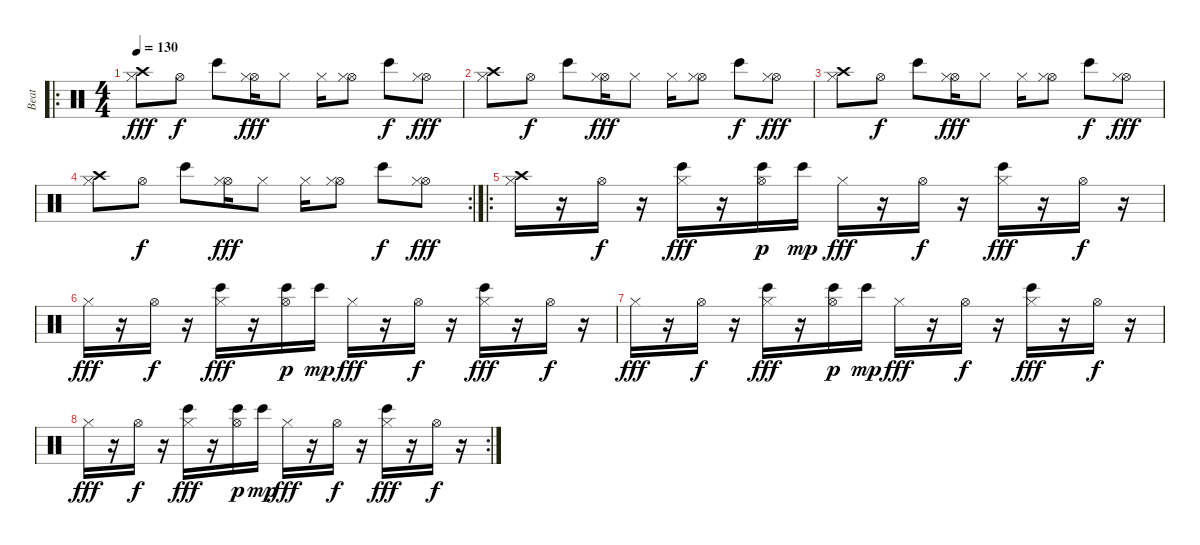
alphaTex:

\track ("Beat" "Beat") {instrument percussion}
\staff {score}
\articulation defaults
\ro
\ts (4 4)
\tempo 130
\clef neutral
\ks c
("Crash high (hit)" "Hi-Hat (closed)").8{dy fff} "Hi-Hat (open)".8{dy f} "Bongo High (hit)".8 ("Hi-Hat (open)" "Hi-Hat (closed)").16{dy fff} "Hi-Hat (closed)".8 "Hi-Hat (closed)".16 ("Hi-Hat (open)" "Hi-Hat (closed)").8 "Bongo High (hit)".8{dy f} ("Hi-Hat (open)" "Hi-Hat (closed)").8{dy fff} |
("Crash high (hit)" "Hi-Hat (closed)").8 "Hi-Hat (open)".8{dy f} "Bongo High (hit)".8 ("Hi-Hat (open)" "Hi-Hat (closed)").16{dy fff} "Hi-Hat (closed)".8 "Hi-Hat (closed)".16 ("Hi-Hat (open)" "Hi-Hat (closed)").8 "Bongo High (hit)".8{dy f} ("Hi-Hat (open)" "Hi-Hat (closed)").8{dy fff} |
("Crash high (hit)" "Hi-Hat (closed)").8 "Hi-Hat (open)".8{dy f} "Bongo High (hit)".8 ("Hi-Hat (open)" "Hi-Hat (closed)").16{dy fff} "Hi-Hat (closed)".8 "Hi-Hat (closed)".16 ("Hi-Hat (open)" "Hi-Hat (closed)").8 "Bongo High (hit)".8{dy f} ("Hi-Hat (open)" "Hi-Hat (closed)").8{dy fff} |
\rc 2
("Crash high (hit)" "Hi-Hat (closed)").8 "Hi-Hat (open)".8{dy f} "Bongo High (hit)".8 ("Hi-Hat (open)" "Hi-Hat (closed)").16{dy fff} "Hi-Hat (closed)".8 "Hi-Hat (closed)".16 ("Hi-Hat (open)" "Hi-Hat (closed)").8 "Bongo High (hit)".8{dy f} ("Hi-Hat (open)" "Hi-Hat (closed)").8{dy fff} |
\ro
("Crash high (hit)" "Hi-Hat (closed)").16 r.16 "Hi-Hat (open)".16{dy f} r.16 ("Bongo High (hit)" "Hi-Hat (closed)").16{dy fff} r.16 ("Hi-Hat (open)" "Bongo High (hit)").16{dy p} "Bongo High (hit)".16{dy mp} "Hi-Hat (closed)".16{dy fff} r.16 "Hi-Hat (open)".16{dy f} r.16 ("Bongo High (hit)" "Hi-Hat (closed)").16{dy fff} r.16 "Hi-Hat (open)".16{dy f} r.16 |
"Hi-Hat (closed)".16{dy fff} r.16 "Hi-Hat (open)".16{dy f} r.16 ("Bongo High (hit)" "Hi-Hat (closed)").16{dy fff} r.16 ("Hi-Hat (open)" "Bongo High (hit)").16{dy p} "Bongo High (hit)".16{dy mp} "Hi-Hat (closed)".16{dy fff} r.16 "Hi-Hat (open)".16{dy f} r.16 ("Bongo High (hit)" "Hi-Hat (closed)").16{dy fff} r.16 "Hi-Hat (open)".16{dy f} r.16 |
"Hi-Hat (closed)".16{dy fff} r.16 "Hi-Hat (open)".16{dy f} r.16 ("Bongo High (hit)" "Hi-Hat (closed)").16{dy fff} r.16 ("Hi-Hat (open)" "Bongo High (hit)").16{dy p} "Bongo High (hit)".16{dy mp} "Hi-Hat (closed)".16{dy fff} r.16 "Hi-Hat (open)".16{dy f} r.16 ("Bongo High (hit)" "Hi-Hat (closed)").16{dy fff} r.16 "Hi-Hat (open)".16{dy f} r.16 |
\rc 2 "Hi-Hat (closed)".16{dy fff}
r.16 "Hi-Hat (open)".16{dy f} r.16 ("Bongo High (hit)" "Hi-Hat (closed)").16{dy fff} r.16 ("Hi-Hat (open)" "Bongo High (hit)").16{dy p} "Bongo High (hit)".16{dy mp} "Hi-Hat (closed)".16{dy fff} r.16 "Hi-Hat (open)".16{dy f} r.16 ("Bongo High (hit)" "Hi-Hat (closed)").16{dy fff} r.16 "Hi-Hat (open)".16{dy f} r.16
